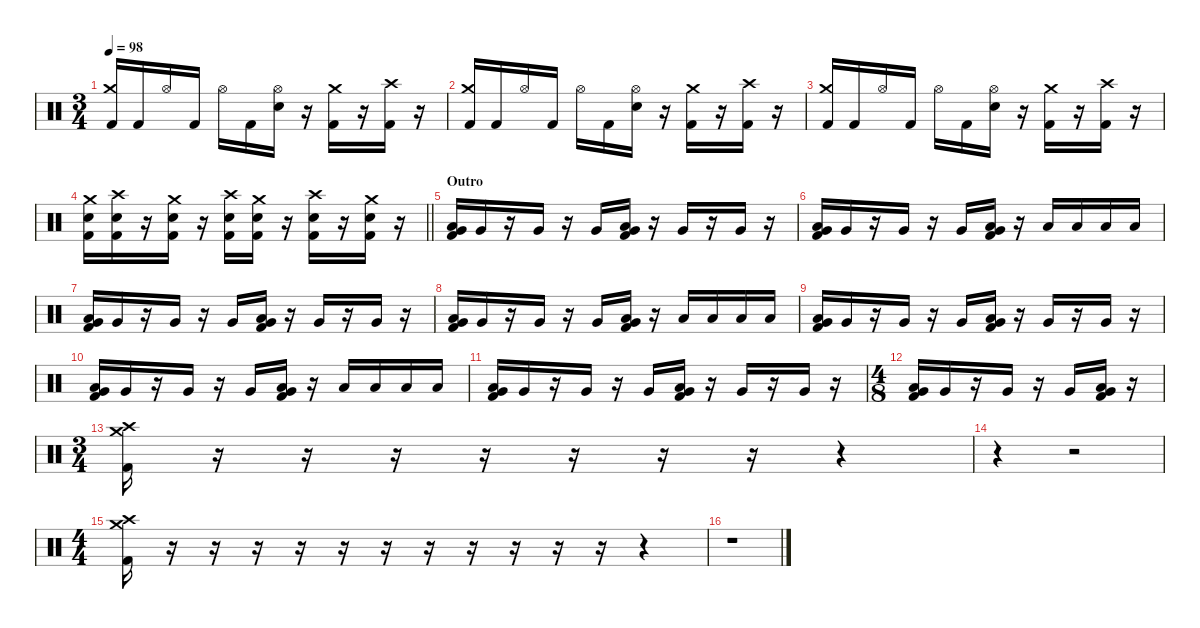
\defaultSystemsLayout 4
\hideDynamics
\bracketExtendMode nobrackets
\singleTrackTrackNamePolicy hidden
\multiTrackTrackNamePolicy hidden
\firstSystemTrackNameMode fullname
\firstSystemTrackNameOrientation horizontal
\otherSystemsTrackNameOrientation horizontal
\track ("Drums" "drm.") {instrument percussion}
\staff {score}
\articulation defaults
\ts (3 4)
\tempo 98
\clef neutral
\ks c
("Crash medium (hit)" "Kick (hit) 2").16{dy f beam Up} "Kick (hit) 2".16{beam Up} "Hi-Hat (open)".16{beam Up} "Kick (hit) 2".16{beam Up} "Hi-Hat (open)".16{beam Down} "Kick (hit) 2".16{beam Down} ("Hi-Hat (open)" "Snare (hit) 2").16{beam Down} r.16{beam Down} ("Crash medium (hit)" "Kick (hit) 2").16{beam Down} r.16{beam Down} ("Crash high (hit)" "Kick (hit) 2").16{beam Down} r.16{beam Down} |
("Crash medium (hit)" "Kick (hit) 2").16{beam Up} "Kick (hit) 2".16{beam Up} "Hi-Hat (open)".16{beam Up} "Kick (hit) 2".16{beam Up} "Hi-Hat (open)".16{beam Down} "Kick (hit) 2".16{beam Down} ("Hi-Hat (open)" "Snare (hit) 2").16{beam Down} r.16{beam Down} ("Crash medium (hit)" "Kick (hit) 2").16{beam Down} r.16{beam Down} ("Crash high (hit)" "Kick (hit) 2").16{beam Down} r.16{beam Down} |
("Crash medium (hit)" "Kick (hit) 2").16{beam Up} "Kick (hit) 2".16{beam Up} "Hi-Hat (open)".16{beam Up} "Kick (hit) 2".16{beam Up} "Hi-Hat (open)".16{beam Down} "Kick (hit) 2".16{beam Down} ("Hi-Hat (open)" "Snare (hit) 2").16{beam Down} r.16{beam Down} ("Crash medium (hit)" "Kick (hit) 2").16{beam Down} r.16{beam Down} ("Crash high (hit)" "Kick (hit) 2").16{beam Down} r.16{beam Down} |
\barLineRight lightlight
("Crash medium (hit)" "Snare (hit) 2" "Kick (hit) 2").16{beam Down} ("Crash high (hit)" "Snare (hit) 2" "Kick (hit) 2").16{beam Down} r.16{beam Down} ("Crash medium (hit)" "Snare (hit) 2" "Kick (hit) 2").16{beam Down} r.16{beam Down} ("Crash high (hit)" "Snare (hit) 2" "Kick (hit) 2").16{beam Down} ("Crash medium (hit)" "Snare (hit) 2" "Kick (hit) 2").16{beam Down} r.16{beam Down} ("Crash high (hit)" "Snare (hit) 2" "Kick (hit) 2").16{beam Down} r.16{beam Down} ("Crash medium (hit)" "Snare (hit) 2" "Kick (hit) 2").16{beam Down} r.16{beam Down} |
\section ("" "Outro")
("Low Tom (hit)" "Very Low Tom (hit)" "Kick (hit) 2").16{beam Up} "Very Low Tom (hit)".16{beam Up} r.16{beam Up} "Very Low Tom (hit)".16{beam Up} r.16{beam Up} "Very Low Tom (hit)".16{beam Up} ("Low Tom (hit)" "Very Low Tom (hit)" "Kick (hit) 2").16{beam Up} r.16{beam Up} "Very Low Tom (hit)".16{beam Up} r.16{beam Up} "Very Low Tom (hit)".16{beam Up} r.16{beam Up} |
("Low Tom (hit)" "Very Low Tom (hit)" "Kick (hit) 2").16{beam Up} "Very Low Tom (hit)".16{beam Up} r.16{beam Up} "Very Low Tom (hit)".16{beam Up} r.16{beam Up} "Very Low Tom (hit)".16{beam Up} ("Low Tom (hit)" "Very Low Tom (hit)" "Kick (hit) 2").16{beam Up} r.16{beam Up} "Low Floor Tom (hit)".16{beam Up} "Low Floor Tom (hit)".16{beam Up} "Low Floor Tom (hit)".16{beam Up} "Low Floor Tom (hit)".16{beam Up} |
("Low Tom (hit)" "Very Low Tom (hit)" "Kick (hit) 2").16{beam Up} "Very Low Tom (hit)".16{beam Up} r.16{beam Up} "Very Low Tom (hit)".16{beam Up} r.16{beam Up} "Very Low Tom (hit)".16{beam Up} ("Low Tom (hit)" "Very Low Tom (hit)" "Kick (hit) 2").16{beam Up} r.16{beam Up} "Very Low Tom (hit)".16{beam Up} r.16{beam Up} "Very Low Tom (hit)".16{beam Up} r.16{beam Up} |
("Low Tom (hit)" "Very Low Tom (hit)" "Kick (hit) 2").16{beam Up} "Very Low Tom (hit)".16{beam Up} r.16{beam Up} "Very Low Tom (hit)".16{beam Up} r.16{beam Up} "Very Low Tom (hit)".16{beam Up} ("Low Tom (hit)" "Very Low Tom (hit)" "Kick (hit) 2").16{beam Up} r.16{beam Up} "Low Floor Tom (hit)".16{beam Up} "Low Floor Tom (hit)".16{beam Up} "Low Floor Tom (hit)".16{beam Up} "Low Floor Tom (hit)".16{beam Up} |
("Low Tom (hit)" "Very Low Tom (hit)" "Kick (hit) 2").16{beam Up} "Very Low Tom (hit)".16{beam Up} r.16{beam Up} "Very Low Tom (hit)".16{beam Up} r.16{beam Up} "Very Low Tom (hit)".16{beam Up} ("Low Tom (hit)" "Very Low Tom (hit)" "Kick (hit) 2").16{beam Up} r.16{beam Up} "Very Low Tom (hit)".16{beam Up} r.16{beam Up} "Very Low Tom (hit)".16{beam Up} r.16{beam Up} |
("Low Tom (hit)" "Very Low Tom (hit)" "Kick (hit) 2").16{beam Up} "Very Low Tom (hit)".16{beam Up} r.16{beam Up} "Very Low Tom (hit)".16{beam Up} r.16{beam Up} "Very Low Tom (hit)".16{beam Up} ("Low Tom (hit)" "Very Low Tom (hit)" "Kick (hit) 2").16{beam Up} r.16{beam Up} "Low Floor Tom (hit)".16{beam Up} "Low Floor Tom (hit)".16{beam Up} "Low Floor Tom (hit)".16{beam Up} "Low Floor Tom (hit)".16{beam Up} |
("Low Tom (hit)" "Very Low Tom (hit)" "Kick (hit) 2").16{beam Up} "Very Low Tom (hit)".16{beam Up} r.16{beam Up} "Very Low Tom (hit)".16{beam Up} r.16{beam Up} "Very Low Tom (hit)".16{beam Up} ("Low Tom (hit)" "Very Low Tom (hit)" "Kick (hit) 2").16{beam Up} r.16{beam Up} "Very Low Tom (hit)".16{beam Up} r.16{beam Up} "Very Low Tom (hit)".16{beam Up} r.16{beam Up} |
\ts (4 8)
\beaming (8 2 2)
("Low Tom (hit)" "Very Low Tom (hit)" "Kick (hit) 2").16{beam Up} "Very Low Tom (hit)".16{beam Up} r.16{beam Up} "Very Low Tom (hit)".16{beam Up} r.16{beam Up} "Very Low Tom (hit)".16{beam Up} ("Low Tom (hit)" "Very Low Tom (hit)" "Kick (hit) 2").16{beam Up} r.16{beam Up} |
\ts (3 4)
\beaming (8 2 2 2)
("Crash medium (hit)" "Crash high (hit)" "Kick (hit) 2").16{beam Down} r.16{beam Down} r.16{beam Down} r.16{beam Down} r.16{beam Down} r.16{beam Down} r.16{beam Down} r.16{beam Down} r.4{beam Down} |
r.4{beam Down} r.2{beam Down} |
\ts (4 4)
\beaming (8 2 2 2 2)
("Crash medium (hit)" "Crash high (hit)" "Kick (hit) 2").16{beam Down} r.16{beam Down} r.16{beam Down} r.16{beam Down} r.16{beam Down} r.16{beam Down} r.16{beam Down} r.16{beam Down} r.16{beam Down} r.16{beam Down} r.16{beam Down} r.16{beam Down} r.4{beam Down} |
r.1{beam Down}
